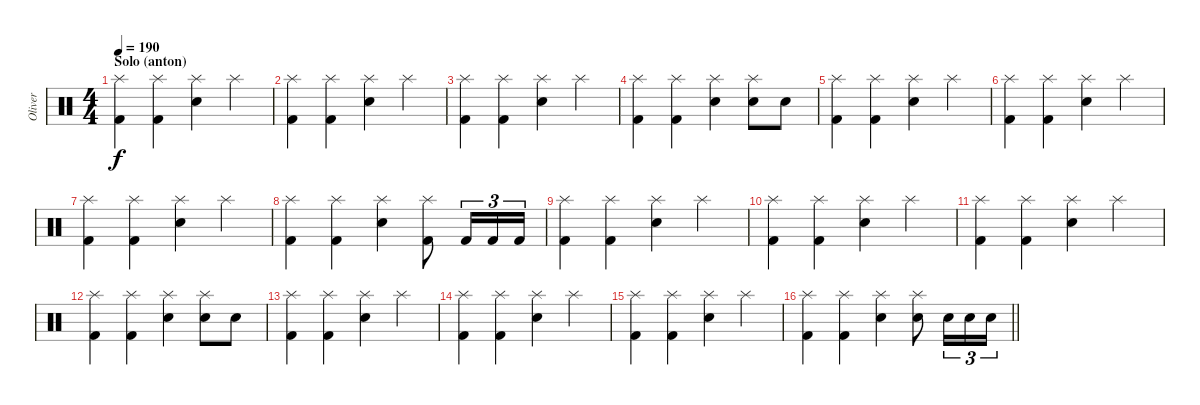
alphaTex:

\track ("Oliver" "Oliver") {instrument percussion}
\staff {score}
\articulation defaults
\ts (4 4)
\section ("" "Solo (anton)")
\tempo 190
\clef neutral
\ks c
("Splash (hit)" "Kick (hit) 2").4{dy f} ("Splash (hit)" "Kick (hit) 2").4 ("Splash (hit)" "Snare (hit) 2").4 "Splash (hit)".4 |
("Splash (hit)" "Kick (hit) 2").4 ("Splash (hit)" "Kick (hit) 2").4 ("Splash (hit)" "Snare (hit) 2").4 "Splash (hit)".4 |
("Splash (hit)" "Kick (hit) 2").4 ("Splash (hit)" "Kick (hit) 2").4 ("Splash (hit)" "Snare (hit) 2").4 "Splash (hit)".4 |
("Splash (hit)" "Kick (hit) 2").4 ("Splash (hit)" "Kick (hit) 2").4 ("Splash (hit)" "Snare (hit) 2").4 ("Splash (hit)" "Snare (hit) 2").8 "Snare (hit) 2".8 |
("Splash (hit)" "Kick (hit) 2").4 ("Splash (hit)" "Kick (hit) 2").4 ("Splash (hit)" "Snare (hit) 2").4 "Splash (hit)".4 |
("Splash (hit)" "Kick (hit) 2").4 ("Splash (hit)" "Kick (hit) 2").4 ("Splash (hit)" "Snare (hit) 2").4 "Splash (hit)".4 |
("Splash (hit)" "Kick (hit) 2").4 ("Splash (hit)" "Kick (hit) 2").4 ("Splash (hit)" "Snare (hit) 2").4 "Splash (hit)".4 |
("Splash (hit)" "Kick (hit) 2").4 ("Splash (hit)" "Kick (hit) 2").4 ("Splash (hit)" "Snare (hit) 2").4 ("Splash (hit)" "Kick (hit) 2").8 "Kick (hit) 2".16{tu (3 2)} "Kick (hit) 2".16{tu (3 2)} "Kick (hit) 2".16{tu (3 2)} |
("Splash (hit)" "Kick (hit) 2").4 ("Splash (hit)" "Kick (hit) 2").4 ("Splash (hit)" "Snare (hit) 2").4 "Splash (hit)".4 |
("Splash (hit)" "Kick (hit) 2").4 ("Splash (hit)" "Kick (hit) 2").4 ("Splash (hit)" "Snare (hit) 2").4 "Splash (hit)".4 |
("Splash (hit)" "Kick (hit) 2").4 ("Splash (hit)" "Kick (hit) 2").4 ("Splash (hit)" "Snare (hit) 2").4 "Splash (hit)".4 |
("Splash (hit)" "Kick (hit) 2").4 ("Splash (hit)" "Kick (hit) 2").4 ("Splash (hit)" "Snare (hit) 2").4 ("Splash (hit)" "Snare (hit) 2").8 "Snare (hit) 2".8 |
("Splash (hit)" "Kick (hit) 2").4 ("Splash (hit)" "Kick (hit) 2").4 ("Splash (hit)" "Snare (hit) 2").4 "Splash (hit)".4 |
("Splash (hit)" "Kick (hit) 2").4 ("Splash (hit)" "Kick (hit) 2").4 ("Splash (hit)" "Snare (hit) 2").4 "Splash (hit)".4 |
("Splash (hit)" "Kick (hit) 2").4 ("Splash (hit)" "Kick (hit) 2").4 ("Splash (hit)" "Snare (hit) 2").4 "Splash (hit)".4 |
\barLineRight lightlight
("Splash (hit)" "Kick (hit) 2").4 ("Splash (hit)" "Kick (hit) 2").4 ("Splash (hit)" "Snare (hit) 2").4 ("Splash (hit)" "Snare (hit) 2").8 "Snare (hit) 2".16{tu (3 2)} "Snare (hit) 2".16{tu (3 2)} "Snare (hit) 2".16{tu (3 2)}
